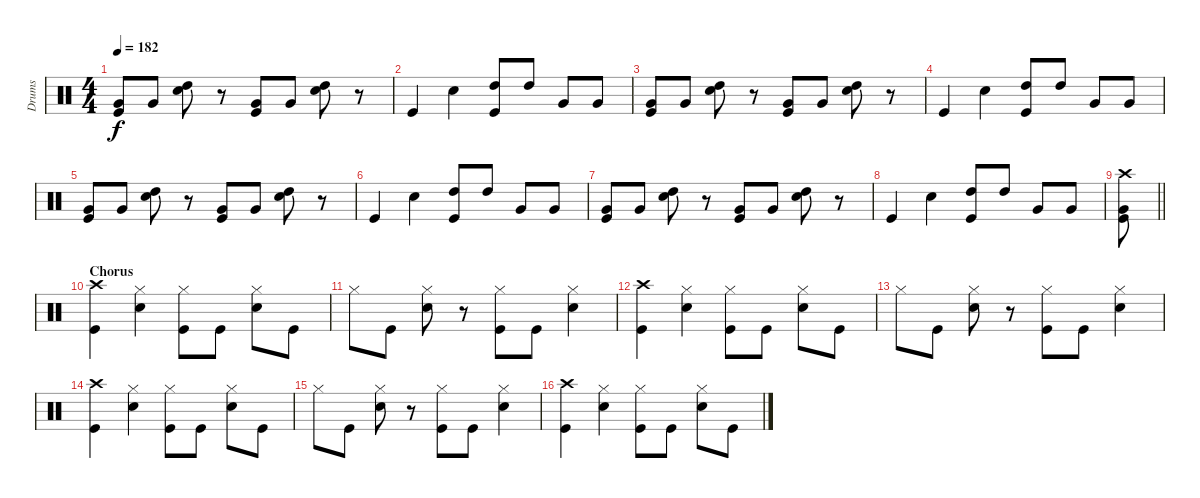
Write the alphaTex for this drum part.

\track ("Drums" "Drums") {instrument percussion}
\staff {score}
\articulation defaults
\ts (4 4)
\tempo 182
\clef neutral
\ks c
("Very Low Tom (hit)" "Kick (hit)").8{dy f} "Very Low Tom (hit)".8 ("Snare (hit) 2" "High Tom (hit)").8 r.8 ("Very Low Tom (hit)" "Kick (hit)").8 "Very Low Tom (hit)".8 ("Snare (hit) 2" "High Tom (hit)").8 r.8 |
"Kick (hit)".4 "Snare (hit) 2".4 ("High Tom (hit)" "Kick (hit)").8 "High Tom (hit)".8 "Very Low Tom (hit)".8 "Very Low Tom (hit)".8 |
("Very Low Tom (hit)" "Kick (hit)").8 "Very Low Tom (hit)".8 ("Snare (hit) 2" "High Tom (hit)").8 r.8 ("Very Low Tom (hit)" "Kick (hit)").8 "Very Low Tom (hit)".8 ("Snare (hit) 2" "High Tom (hit)").8 r.8 |
"Kick (hit)".4 "Snare (hit) 2".4 ("High Tom (hit)" "Kick (hit)").8 "High Tom (hit)".8 "Very Low Tom (hit)".8 "Very Low Tom (hit)".8 |
("Very Low Tom (hit)" "Kick (hit)").8 "Very Low Tom (hit)".8 ("Snare (hit) 2" "High Tom (hit)").8 r.8 ("Very Low Tom (hit)" "Kick (hit)").8 "Very Low Tom (hit)".8 ("Snare (hit) 2" "High Tom (hit)").8 r.8 |
"Kick (hit)".4 "Snare (hit) 2".4 ("High Tom (hit)" "Kick (hit)").8 "High Tom (hit)".8 "Very Low Tom (hit)".8 "Very Low Tom (hit)".8 |
("Very Low Tom (hit)" "Kick (hit)").8 "Very Low Tom (hit)".8 ("Snare (hit) 2" "High Tom (hit)").8 r.8 ("Very Low Tom (hit)" "Kick (hit)").8 "Very Low Tom (hit)".8 ("Snare (hit) 2" "High Tom (hit)").8 r.8 |
"Kick (hit)".4 "Snare (hit) 2".4 ("High Tom (hit)" "Kick (hit)").8 "High Tom (hit)".8 "Very Low Tom (hit)".8 "Very Low Tom (hit)".8 |
\barLineRight lightlight
("Crash high (hit)" "Very Low Tom (hit)" "Kick (hit)").8 |
\section ("" "Chorus")
("Crash high (hit)" "Kick (hit)").4 ("Hi-Hat (closed)" "Snare (hit) 2").4 ("Hi-Hat (closed)" "Kick (hit)").8 "Kick (hit)".8 ("Hi-Hat (closed)" "Snare (hit) 2").8 "Kick (hit)".8 |
"Hi-Hat (closed)".8 "Kick (hit)".8 ("Hi-Hat (closed)" "Snare (hit) 2").8 r.8 ("Hi-Hat (closed)" "Kick (hit)").8 "Kick (hit)".8 ("Hi-Hat (closed)" "Snare (hit) 2").4 |
("Crash high (hit)" "Kick (hit)").4 ("Hi-Hat (closed)" "Snare (hit) 2").4 ("Hi-Hat (closed)" "Kick (hit)").8 "Kick (hit)".8 ("Hi-Hat (closed)" "Snare (hit) 2").8 "Kick (hit)".8 |
"Hi-Hat (closed)".8 "Kick (hit)".8 ("Hi-Hat (closed)" "Snare (hit) 2").8 r.8 ("Hi-Hat (closed)" "Kick (hit)").8 "Kick (hit)".8 ("Hi-Hat (closed)" "Snare (hit) 2").4 |
("Crash high (hit)" "Kick (hit)").4 ("Hi-Hat (closed)" "Snare (hit) 2").4 ("Hi-Hat (closed)" "Kick (hit)").8 "Kick (hit)".8 ("Hi-Hat (closed)" "Snare (hit) 2").8 "Kick (hit)".8 |
"Hi-Hat (closed)".8 "Kick (hit)".8 ("Hi-Hat (closed)" "Snare (hit) 2").8 r.8 ("Hi-Hat (closed)" "Kick (hit)").8 "Kick (hit)".8 ("Hi-Hat (closed)" "Snare (hit) 2").4 |
("Crash high (hit)" "Kick (hit)").4 ("Hi-Hat (closed)" "Snare (hit) 2").4 ("Hi-Hat (closed)" "Kick (hit)").8 "Kick (hit)".8 ("Hi-Hat (closed)" "Snare (hit) 2").8 "Kick (hit)".8
